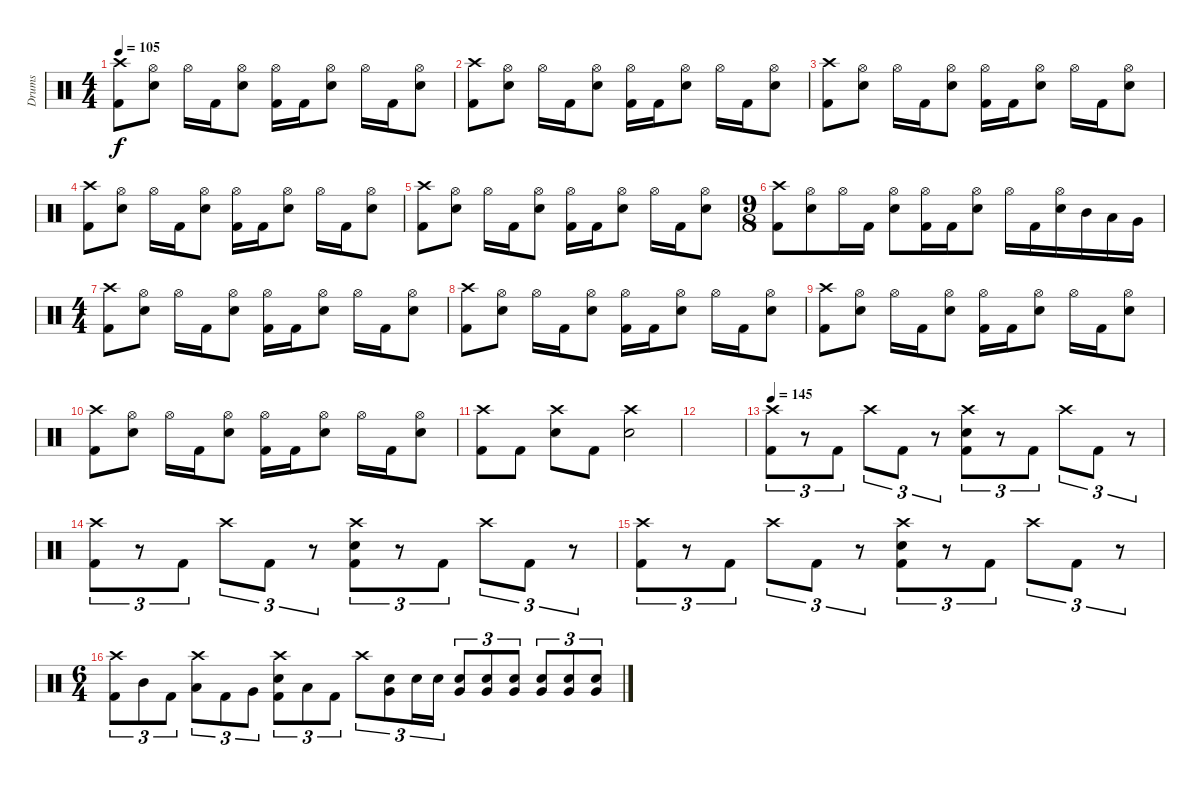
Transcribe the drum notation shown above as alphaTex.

\track ("Drums" "Drums") {instrument percussion}
\staff {score}
\articulation defaults
\ts (4 4)
\tempo 105
\clef neutral
\ks c
("Crash high (hit)" "Kick (hit) 2").8{dy f} ("Hi-Hat (open)" "Snare (hit) 2").8 "Hi-Hat (open)".16 "Kick (hit) 2".16 ("Hi-Hat (open)" "Snare (hit) 2").8 ("Hi-Hat (open)" "Kick (hit) 2").16 "Kick (hit) 2".16 ("Hi-Hat (open)" "Snare (hit) 2").8 "Hi-Hat (open)".16 "Kick (hit) 2".16 ("Hi-Hat (open)" "Snare (hit) 2").8 |
("Crash high (hit)" "Kick (hit) 2").8 ("Hi-Hat (open)" "Snare (hit) 2").8 "Hi-Hat (open)".16 "Kick (hit) 2".16 ("Hi-Hat (open)" "Snare (hit) 2").8 ("Hi-Hat (open)" "Kick (hit) 2").16 "Kick (hit) 2".16 ("Hi-Hat (open)" "Snare (hit) 2").8 "Hi-Hat (open)".16 "Kick (hit) 2".16 ("Hi-Hat (open)" "Snare (hit) 2").8 |
("Crash high (hit)" "Kick (hit) 2").8 ("Hi-Hat (open)" "Snare (hit) 2").8 "Hi-Hat (open)".16 "Kick (hit) 2".16 ("Hi-Hat (open)" "Snare (hit) 2").8 ("Hi-Hat (open)" "Kick (hit) 2").16 "Kick (hit) 2".16 ("Hi-Hat (open)" "Snare (hit) 2").8 "Hi-Hat (open)".16 "Kick (hit) 2".16 ("Hi-Hat (open)" "Snare (hit) 2").8 |
("Crash high (hit)" "Kick (hit) 2").8 ("Hi-Hat (open)" "Snare (hit) 2").8 "Hi-Hat (open)".16 "Kick (hit) 2".16 ("Hi-Hat (open)" "Snare (hit) 2").8 ("Hi-Hat (open)" "Kick (hit) 2").16 "Kick (hit) 2".16 ("Hi-Hat (open)" "Snare (hit) 2").8 "Hi-Hat (open)".16 "Kick (hit) 2".16 ("Hi-Hat (open)" "Snare (hit) 2").8 |
("Crash high (hit)" "Kick (hit) 2").8 ("Hi-Hat (open)" "Snare (hit) 2").8 "Hi-Hat (open)".16 "Kick (hit) 2".16 ("Hi-Hat (open)" "Snare (hit) 2").8 ("Hi-Hat (open)" "Kick (hit) 2").16 "Kick (hit) 2".16 ("Hi-Hat (open)" "Snare (hit) 2").8 "Hi-Hat (open)".16 "Kick (hit) 2".16 ("Hi-Hat (open)" "Snare (hit) 2").8 |
\ts (9 8)
("Crash high (hit)" "Kick (hit) 2").8 ("Hi-Hat (open)" "Snare (hit) 2").8 "Hi-Hat (open)".16 "Kick (hit) 2".16 ("Hi-Hat (open)" "Snare (hit) 2").8 ("Hi-Hat (open)" "Kick (hit) 2").16 "Kick (hit) 2".16 ("Hi-Hat (open)" "Snare (hit) 2").8 "Hi-Hat (open)".16 "Kick (hit) 2".16 ("Hi-Hat (open)" "Snare (hit) 2").16 "Mid Tom (hit)".16 "Low Tom (hit)".16 "Very Low Tom (hit)".16 |
\ts (4 4)
("Crash high (hit)" "Kick (hit) 2").8 ("Hi-Hat (open)" "Snare (hit) 2").8 "Hi-Hat (open)".16 "Kick (hit) 2".16 ("Hi-Hat (open)" "Snare (hit) 2").8 ("Hi-Hat (open)" "Kick (hit) 2").16 "Kick (hit) 2".16 ("Hi-Hat (open)" "Snare (hit) 2").8 "Hi-Hat (open)".16 "Kick (hit) 2".16 ("Hi-Hat (open)" "Snare (hit) 2").8 |
("Crash high (hit)" "Kick (hit) 2").8 ("Hi-Hat (open)" "Snare (hit) 2").8 "Hi-Hat (open)".16 "Kick (hit) 2".16 ("Hi-Hat (open)" "Snare (hit) 2").8 ("Hi-Hat (open)" "Kick (hit) 2").16 "Kick (hit) 2".16 ("Hi-Hat (open)" "Snare (hit) 2").8 "Hi-Hat (open)".16 "Kick (hit) 2".16 ("Hi-Hat (open)" "Snare (hit) 2").8 |
("Crash high (hit)" "Kick (hit) 2").8 ("Hi-Hat (open)" "Snare (hit) 2").8 "Hi-Hat (open)".16 "Kick (hit) 2".16 ("Hi-Hat (open)" "Snare (hit) 2").8 ("Hi-Hat (open)" "Kick (hit) 2").16 "Kick (hit) 2".16 ("Hi-Hat (open)" "Snare (hit) 2").8 "Hi-Hat (open)".16 "Kick (hit) 2".16 ("Hi-Hat (open)" "Snare (hit) 2").8 |
("Crash high (hit)" "Kick (hit) 2").8 ("Hi-Hat (open)" "Snare (hit) 2").8 "Hi-Hat (open)".16 "Kick (hit) 2".16 ("Hi-Hat (open)" "Snare (hit) 2").8 ("Hi-Hat (open)" "Kick (hit) 2").16 "Kick (hit) 2".16 ("Hi-Hat (open)" "Snare (hit) 2").8 "Hi-Hat (open)".16 "Kick (hit) 2".16 ("Hi-Hat (open)" "Snare (hit) 2").8 |
("Crash high (hit)" "Kick (hit) 2").8 "Kick (hit) 2".8 ("Crash high (hit)" "Snare (hit) 2").8 "Kick (hit) 2".8 ("Crash high (hit)" "Snare (hit) 2").2 |
|
\tempo 145
("Crash high (hit)" "Kick (hit) 2").8{tu (3 2)} r.8{tu (3 2)} "Kick (hit) 2".8{tu (3 2)} "Crash high (hit)".8{tu (3 2)} "Kick (hit) 2".8{tu (3 2)} r.8{tu (3 2)} ("Crash high (hit)" "Snare (hit) 2" "Kick (hit) 2").8{tu (3 2)} r.8{tu (3 2)} "Kick (hit) 2".8{tu (3 2)} "Crash high (hit)".8{tu (3 2)} "Kick (hit) 2".8{tu (3 2)} r.8{tu (3 2)} |
("Crash high (hit)" "Kick (hit) 2").8{tu (3 2)} r.8{tu (3 2)} "Kick (hit) 2".8{tu (3 2)} "Crash high (hit)".8{tu (3 2)} "Kick (hit) 2".8{tu (3 2)} r.8{tu (3 2)} ("Crash high (hit)" "Snare (hit) 2" "Kick (hit) 2").8{tu (3 2)} r.8{tu (3 2)} "Kick (hit) 2".8{tu (3 2)} "Crash high (hit)".8{tu (3 2)} "Kick (hit) 2".8{tu (3 2)} r.8{tu (3 2)} |
("Crash high (hit)" "Kick (hit) 2").8{tu (3 2)} r.8{tu (3 2)} "Kick (hit) 2".8{tu (3 2)} "Crash high (hit)".8{tu (3 2)} "Kick (hit) 2".8{tu (3 2)} r.8{tu (3 2)} ("Crash high (hit)" "Snare (hit) 2" "Kick (hit) 2").8{tu (3 2)} r.8{tu (3 2)} "Kick (hit) 2".8{tu (3 2)} "Crash high (hit)".8{tu (3 2)} "Kick (hit) 2".8{tu (3 2)} r.8{tu (3 2)} |
\ts (6 4)
("Crash high (hit)" "Kick (hit) 2").8{tu (3 2)} "Mid Tom (hit)".8{tu (3 2)} "Kick (hit) 2".8{tu (3 2)} ("Crash high (hit)" "Low Tom (hit)").8{tu (3 2)} "Kick (hit) 2".8{tu (3 2)} "Very Low Tom (hit)".8{tu (3 2)} ("Crash high (hit)" "Snare (hit) 2" "Kick (hit) 2").8{tu (3 2)} "Low Tom (hit)".8{tu (3 2)} "Kick (hit) 2".8{tu (3 2)} "Crash high (hit)".8{tu (3 2)} ("Very Low Tom (hit)" "Snare (hit) 2").8{tu (3 2)} "Snare (hit) 2".16{tu (3 2)} "Snare (hit) 2".16{tu (3 2)} ("Very Low Tom (hit)" "Snare (hit) 2").8{tu (3 2)} ("Very Low Tom (hit)" "Snare (hit) 2").8{tu (3 2)} ("Very Low Tom (hit)" "Snare (hit) 2").8{tu (3 2)} ("Very Low Tom (hit)" "Snare (hit) 2").8{tu (3 2)} ("Very Low Tom (hit)" "Snare (hit) 2").8{tu (3 2)} ("Very Low Tom (hit)" "Snare (hit) 2").8{tu (3 2)}
